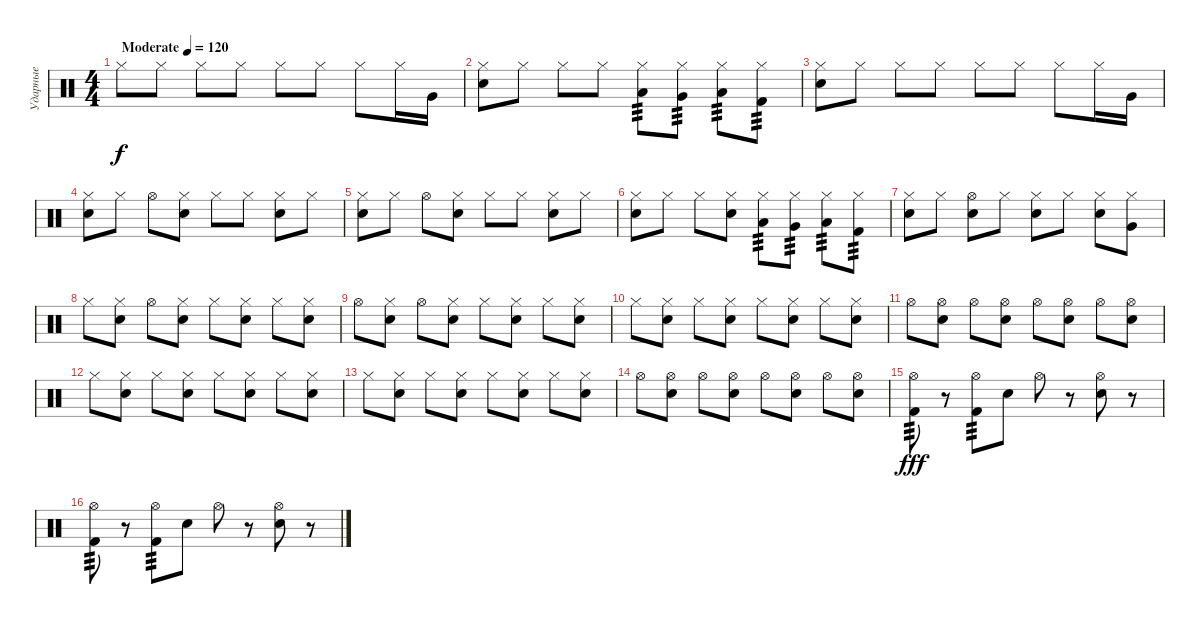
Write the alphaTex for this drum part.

\track ("Ударные" "Ударные") {instrument percussion}
\staff {score}
\articulation defaults
\ts (4 4)
\tempo (120 "Moderate")
\clef neutral
\ks c "Hi-Hat (closed)".8{dy f} "Hi-Hat (closed)".8 "Hi-Hat (closed)".8 "Hi-Hat (closed)".8 "Hi-Hat (closed)".8 "Hi-Hat (closed)".8 "Hi-Hat (closed)".8 "Hi-Hat (closed)".16 "Very Low Tom (hit)".16
|
("Hi-Hat (closed)" "Snare (hit) 2").8 "Hi-Hat (closed)".8 "Hi-Hat (closed)".8 "Hi-Hat (closed)".8 ("Hi-Hat (closed)" "Low Tom (hit)").8{tp 3} ("Hi-Hat (closed)" "Very Low Tom (hit)").8{tp 3} ("Hi-Hat (closed)" "Low Floor Tom (hit)").8{tp 3} ("Hi-Hat (closed)" "Kick (hit) 2").8{tp 3} |
("Hi-Hat (closed)" "Snare (hit) 2").8 "Hi-Hat (closed)".8 "Hi-Hat (closed)".8 "Hi-Hat (closed)".8 "Hi-Hat (closed)".8 "Hi-Hat (closed)".8 "Hi-Hat (closed)".8 "Hi-Hat (closed)".16 "Very Low Tom (hit)".16 |
("Hi-Hat (closed)" "Snare (hit) 2").8 "Hi-Hat (closed)".8 "Hi-Hat (open)".8 ("Hi-Hat (closed)" "Snare (hit) 2").8 "Hi-Hat (closed)".8 "Hi-Hat (closed)".8 ("Hi-Hat (closed)" "Snare (hit) 2").8 "Hi-Hat (closed)".8 |
("Hi-Hat (closed)" "Snare (hit) 2").8 "Hi-Hat (closed)".8 "Hi-Hat (open)".8 ("Hi-Hat (closed)" "Snare (hit) 2").8 "Hi-Hat (closed)".8 "Hi-Hat (closed)".8 ("Hi-Hat (closed)" "Snare (hit) 2").8 "Hi-Hat (closed)".8 |
("Hi-Hat (closed)" "Snare (hit) 2").8 "Hi-Hat (closed)".8 "Hi-Hat (closed)".8 ("Hi-Hat (closed)" "Snare (hit) 2").8 ("Hi-Hat (closed)" "Low Tom (hit)").8{tp 3} ("Hi-Hat (closed)" "Very Low Tom (hit)").8{tp 3} ("Hi-Hat (closed)" "Low Floor Tom (hit)").8{tp 3} ("Hi-Hat (closed)" "Kick (hit) 2").8{tp 3} |
("Hi-Hat (closed)" "Snare (hit) 2").8 "Hi-Hat (closed)".8 ("Hi-Hat (open)" "Snare (hit) 2").8 "Hi-Hat (closed)".8 ("Hi-Hat (closed)" "Snare (hit) 2").8 "Hi-Hat (closed)".8 ("Hi-Hat (closed)" "Snare (hit) 2").8 ("Hi-Hat (closed)" "Very Low Tom (hit)").8 |
"Hi-Hat (closed)".8 ("Hi-Hat (closed)" "Snare (hit) 2").8 "Hi-Hat (open)".8 ("Hi-Hat (closed)" "Snare (hit) 2").8 "Hi-Hat (closed)".8 ("Hi-Hat (closed)" "Snare (hit) 2").8 "Hi-Hat (closed)".8 ("Hi-Hat (closed)" "Snare (hit) 2").8 |
"Hi-Hat (open)".8 ("Hi-Hat (closed)" "Snare (hit) 2").8 "Hi-Hat (open)".8 ("Hi-Hat (closed)" "Snare (hit) 2").8 "Hi-Hat (closed)".8 ("Hi-Hat (closed)" "Snare (hit) 2").8 "Hi-Hat (closed)".8 ("Hi-Hat (closed)" "Snare (hit) 2").8 |
"Hi-Hat (closed)".8 ("Hi-Hat (closed)" "Snare (hit) 2").8 "Hi-Hat (closed)".8 ("Hi-Hat (closed)" "Snare (hit) 2").8 "Hi-Hat (closed)".8 ("Hi-Hat (closed)" "Snare (hit) 2").8 "Hi-Hat (closed)".8 ("Hi-Hat (closed)" "Snare (hit) 2").8 |
"Hi-Hat (open)".8 ("Hi-Hat (open)" "Snare (hit) 2").8 "Hi-Hat (open)".8 ("Hi-Hat (open)" "Snare (hit) 2").8 "Hi-Hat (open)".8 ("Hi-Hat (open)" "Snare (hit) 2").8 "Hi-Hat (open)".8 ("Hi-Hat (open)" "Snare (hit) 2").8 |
"Hi-Hat (closed)".8 ("Hi-Hat (closed)" "Snare (hit) 2").8 "Hi-Hat (closed)".8 ("Hi-Hat (closed)" "Snare (hit) 2").8 "Hi-Hat (closed)".8 ("Hi-Hat (closed)" "Snare (hit) 2").8 "Hi-Hat (closed)".8 ("Hi-Hat (closed)" "Snare (hit) 2").8 |
"Hi-Hat (closed)".8 ("Hi-Hat (closed)" "Snare (hit) 2").8 "Hi-Hat (closed)".8 ("Hi-Hat (closed)" "Snare (hit) 2").8 "Hi-Hat (closed)".8 ("Hi-Hat (closed)" "Snare (hit) 2").8 "Hi-Hat (closed)".8 ("Hi-Hat (closed)" "Snare (hit) 2").8 |
"Hi-Hat (open)".8 ("Hi-Hat (open)" "Snare (hit) 2").8 "Hi-Hat (open)".8 ("Hi-Hat (open)" "Snare (hit) 2").8 "Hi-Hat (open)".8 ("Hi-Hat (open)" "Snare (hit) 2").8 "Hi-Hat (open)".8 ("Hi-Hat (open)" "Snare (hit) 2").8 |
("Hi-Hat (open)" "Kick (hit) 2").8{tp 3 dy fff} r.8 ("Hi-Hat (open)" "Kick (hit) 2").8{tp 3} "Snare (hit) 2".8 "Hi-Hat (open)".8 r.8 ("Hi-Hat (open)" "Snare (hit) 2").8 r.8 |
("Hi-Hat (open)" "Kick (hit) 2").8{tp 3} r.8 ("Hi-Hat (open)" "Kick (hit) 2").8{tp 3} "Snare (hit) 2".8 "Hi-Hat (open)".8 r.8 ("Hi-Hat (open)" "Snare (hit) 2").8 r.8
